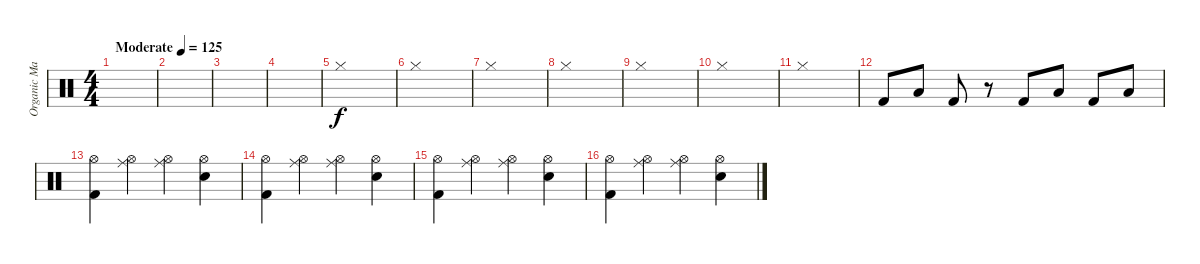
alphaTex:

\track ("Organic Masturbator Of 1000 Splatter Who" "Organic Ma") {instrument percussion}
\staff {score}
\articulation defaults
\ts (4 4)
\tempo (125 "Moderate")
\clef neutral
\ks c
|
|
|
|
"Hi-Hat (closed)".1 |
"Hi-Hat (closed)".1 |
"Hi-Hat (closed)".1 |
"Hi-Hat (closed)".1 |
"Hi-Hat (closed)".1 |
"Hi-Hat (closed)".1 |
"Hi-Hat (closed)".1 |
"Kick (hit) 2".8 "Low Floor Tom (hit)".8 "Kick (hit) 2".8 r.8 "Kick (hit) 2".8 "Low Floor Tom (hit)".8 "Kick (hit) 2".8 "Low Floor Tom (hit)".8 |
("Hi-Hat (open)" "Kick (hit) 2").4 ("Ride (middle)" "Hi-Hat (open)").4 ("Ride (middle)" "Hi-Hat (open)").4 ("Hi-Hat (open)" "Electric Snare (hit)").4 |
("Hi-Hat (open)" "Kick (hit) 2").4 ("Ride (middle)" "Hi-Hat (open)").4 ("Ride (middle)" "Hi-Hat (open)").4 ("Hi-Hat (open)" "Electric Snare (hit)").4 |
("Hi-Hat (open)" "Kick (hit) 2").4 ("Ride (middle)" "Hi-Hat (open)").4 ("Ride (middle)" "Hi-Hat (open)").4 ("Hi-Hat (open)" "Electric Snare (hit)").4 |
("Hi-Hat (open)" "Kick (hit) 2").4 ("Ride (middle)" "Hi-Hat (open)").4 ("Ride (middle)" "Hi-Hat (open)").4 ("Hi-Hat (open)" "Electric Snare (hit)").4
